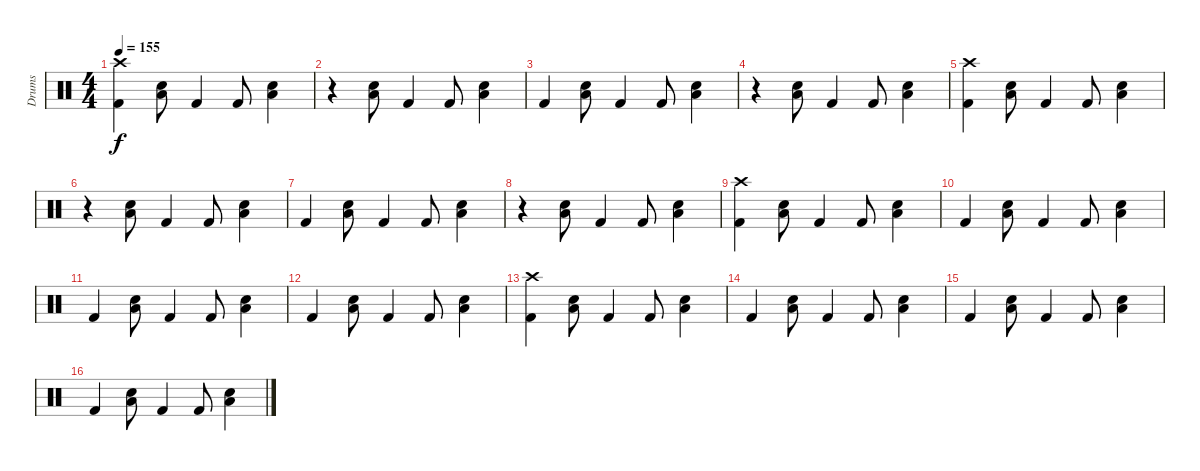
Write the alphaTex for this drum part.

\track ("Drums" "Drums") {instrument percussion}
\staff {score}
\articulation defaults
\ts (4 4)
\tempo 155
\clef neutral
\ks c
("Crash high (hit)" "Kick (hit) 2").4{dy f} ("Low Floor Tom (hit)" "Electric Snare (hit)").8 "Kick (hit) 2".4 "Kick (hit) 2".8 ("Low Floor Tom (hit)" "Electric Snare (hit)").4 |
r.4 ("Low Floor Tom (hit)" "Electric Snare (hit)").8 "Kick (hit) 2".4 "Kick (hit) 2".8 ("Low Floor Tom (hit)" "Electric Snare (hit)").4 |
"Kick (hit) 2".4 ("Low Floor Tom (hit)" "Electric Snare (hit)").8 "Kick (hit) 2".4 "Kick (hit) 2".8 ("Low Floor Tom (hit)" "Electric Snare (hit)").4 |
r.4 ("Low Floor Tom (hit)" "Electric Snare (hit)").8 "Kick (hit) 2".4 "Kick (hit) 2".8 ("Low Floor Tom (hit)" "Electric Snare (hit)").4 |
("Crash high (hit)" "Kick (hit) 2").4 ("Low Floor Tom (hit)" "Electric Snare (hit)").8 "Kick (hit) 2".4 "Kick (hit) 2".8 ("Low Floor Tom (hit)" "Electric Snare (hit)").4 |
r.4 ("Low Floor Tom (hit)" "Electric Snare (hit)").8 "Kick (hit) 2".4 "Kick (hit) 2".8 ("Low Floor Tom (hit)" "Electric Snare (hit)").4 |
"Kick (hit) 2".4 ("Low Floor Tom (hit)" "Electric Snare (hit)").8 "Kick (hit) 2".4 "Kick (hit) 2".8 ("Low Floor Tom (hit)" "Electric Snare (hit)").4 |
r.4 ("Low Floor Tom (hit)" "Electric Snare (hit)").8 "Kick (hit) 2".4 "Kick (hit) 2".8 ("Low Floor Tom (hit)" "Electric Snare (hit)").4 |
("Crash high (hit)" "Kick (hit) 2").4 ("Low Floor Tom (hit)" "Electric Snare (hit)").8 "Kick (hit) 2".4 "Kick (hit) 2".8 ("Low Floor Tom (hit)" "Electric Snare (hit)").4 |
"Kick (hit) 2".4 ("Low Floor Tom (hit)" "Electric Snare (hit)").8 "Kick (hit) 2".4 "Kick (hit) 2".8 ("Low Floor Tom (hit)" "Electric Snare (hit)").4 |
"Kick (hit) 2".4 ("Low Floor Tom (hit)" "Electric Snare (hit)").8 "Kick (hit) 2".4 "Kick (hit) 2".8 ("Low Floor Tom (hit)" "Electric Snare (hit)").4 |
"Kick (hit) 2".4 ("Low Floor Tom (hit)" "Electric Snare (hit)").8 "Kick (hit) 2".4 "Kick (hit) 2".8 ("Low Floor Tom (hit)" "Electric Snare (hit)").4 |
("Crash high (hit)" "Kick (hit) 2").4 ("Low Floor Tom (hit)" "Electric Snare (hit)").8 "Kick (hit) 2".4 "Kick (hit) 2".8 ("Low Floor Tom (hit)" "Electric Snare (hit)").4 |
"Kick (hit) 2".4 ("Low Floor Tom (hit)" "Electric Snare (hit)").8 "Kick (hit) 2".4 "Kick (hit) 2".8 ("Low Floor Tom (hit)" "Electric Snare (hit)").4 |
"Kick (hit) 2".4 ("Low Floor Tom (hit)" "Electric Snare (hit)").8 "Kick (hit) 2".4 "Kick (hit) 2".8 ("Low Floor Tom (hit)" "Electric Snare (hit)").4 |
"Kick (hit) 2".4 ("Low Floor Tom (hit)" "Electric Snare (hit)").8 "Kick (hit) 2".4 "Kick (hit) 2".8 ("Low Floor Tom (hit)" "Electric Snare (hit)").4
